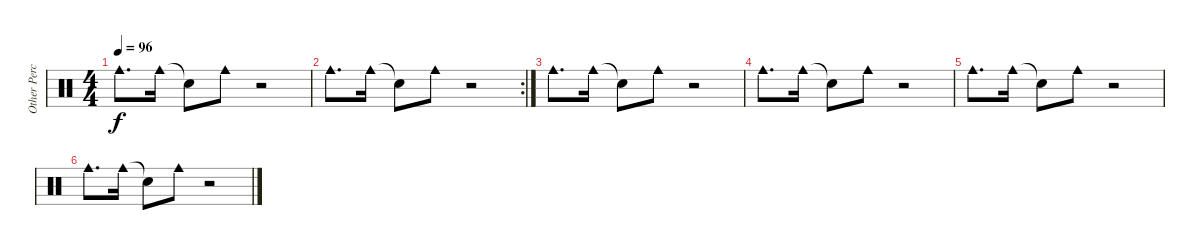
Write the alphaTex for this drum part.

\track ("Other Perc." "Other Perc") {instrument percussion}
\staff {score}
\articulation defaults
\ts (4 4)
\tempo 96
\clef neutral
\ks c "Cowbell medium (hit)".8{d dy f} "Cowbell medium (hit)".16 "Snare (hit)"{t}.8 "Cowbell medium (hit)".8
r.2 |
\rc 2 "Cowbell medium (hit)".8{d} "Cowbell medium (hit)".16 "Snare (hit)"{t}.8 "Cowbell medium (hit)".8
r.2 |
"Cowbell medium (hit)".8{d} "Cowbell medium (hit)".16 "Snare (hit)"{t}.8 "Cowbell medium (hit)".8 r.2 |
"Cowbell medium (hit)".8{d} "Cowbell medium (hit)".16 "Snare (hit)"{t}.8 "Cowbell medium (hit)".8 r.2 |
"Cowbell medium (hit)".8{d} "Cowbell medium (hit)".16 "Snare (hit)"{t}.8 "Cowbell medium (hit)".8 r.2 |
"Cowbell medium (hit)".8{d} "Cowbell medium (hit)".16 "Snare (hit)"{t}.8 "Cowbell medium (hit)".8 r.2
